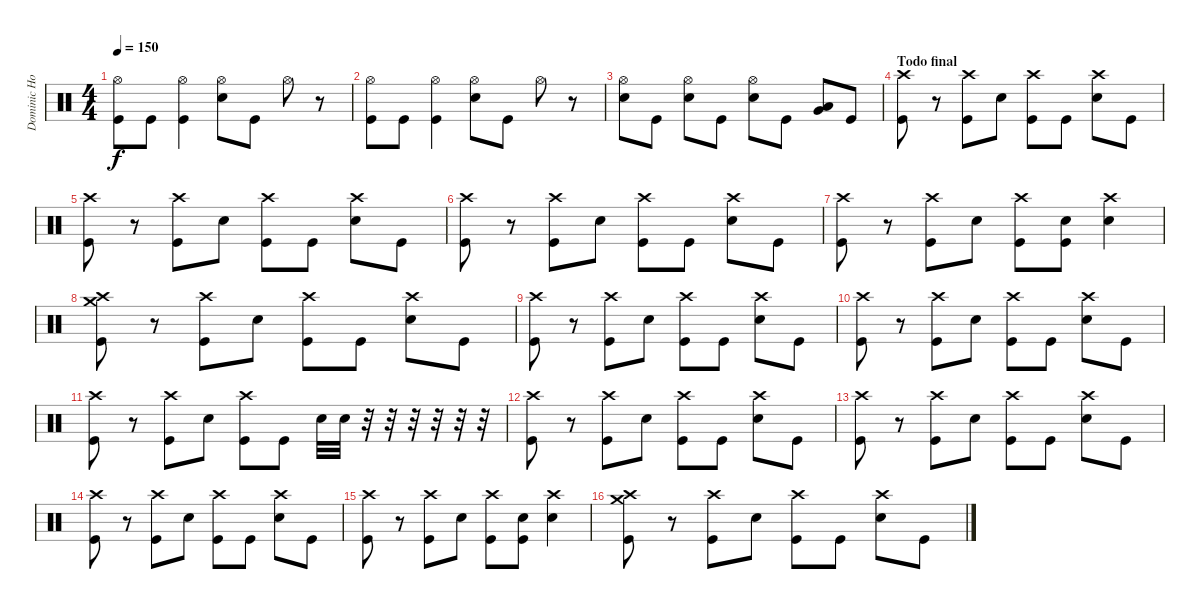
\track ("Dominic Howard" "Dominic Ho") {instrument percussion}
\staff {score}
\articulation defaults
\ts (4 4)
\tempo 150
\clef neutral
\ks c
("Hi-Hat (open)" "Kick (hit)").8{dy f} "Kick (hit)".8 ("Hi-Hat (open)" "Kick (hit)").4 ("Hi-Hat (open)" "Snare (hit) 2").8 "Kick (hit)".8 "Hi-Hat (open)".8 r.8 |
("Hi-Hat (open)" "Kick (hit)").8 "Kick (hit)".8 ("Hi-Hat (open)" "Kick (hit)").4 ("Hi-Hat (open)" "Snare (hit) 2").8 "Kick (hit)".8 "Hi-Hat (open)".8 r.8 |
("Hi-Hat (open)" "Snare (hit) 2").8 "Kick (hit)".8 ("Hi-Hat (open)" "Snare (hit) 2").8 "Kick (hit)".8 ("Hi-Hat (open)" "Snare (hit) 2").8 "Kick (hit)".8 ("Very Low Tom (hit)" "Low Tom (hit)").8 "Kick (hit)".8 |
\section ("" "Todo final")
("Crash high (hit)" "Kick (hit)").8 r.8 ("Crash high (hit)" "Kick (hit)").8 "Snare (hit) 2".8 ("Crash high (hit)" "Kick (hit)").8 "Kick (hit)".8 ("Crash high (hit)" "Snare (hit) 2").8 "Kick (hit)".8 |
("Crash high (hit)" "Kick (hit)").8 r.8 ("Crash high (hit)" "Kick (hit)").8 "Snare (hit) 2".8 ("Crash high (hit)" "Kick (hit)").8 "Kick (hit)".8 ("Crash high (hit)" "Snare (hit) 2").8 "Kick (hit)".8 |
("Crash high (hit)" "Kick (hit)").8 r.8 ("Crash high (hit)" "Kick (hit)").8 "Snare (hit) 2".8 ("Crash high (hit)" "Kick (hit)").8 "Kick (hit)".8 ("Crash high (hit)" "Snare (hit) 2").8 "Kick (hit)".8 |
("Crash high (hit)" "Kick (hit)").8 r.8 ("Crash high (hit)" "Kick (hit)").8 "Snare (hit) 2".8 ("Crash high (hit)" "Kick (hit)").8 ("Snare (hit) 2" "Kick (hit)").8 ("Crash high (hit)" "Snare (hit) 2").4 |
("Crash high (hit)" "Crash medium (hit)" "Kick (hit)").8 r.8 ("Crash high (hit)" "Kick (hit)").8 "Snare (hit) 2".8 ("Crash high (hit)" "Kick (hit)").8 "Kick (hit)".8 ("Crash high (hit)" "Snare (hit) 2").8 "Kick (hit)".8 |
("Crash high (hit)" "Kick (hit)").8 r.8 ("Crash high (hit)" "Kick (hit)").8 "Snare (hit) 2".8 ("Crash high (hit)" "Kick (hit)").8 "Kick (hit)".8 ("Crash high (hit)" "Snare (hit) 2").8 "Kick (hit)".8 |
("Crash high (hit)" "Kick (hit)").8 r.8 ("Crash high (hit)" "Kick (hit)").8 "Snare (hit) 2".8 ("Crash high (hit)" "Kick (hit)").8 "Kick (hit)".8 ("Crash high (hit)" "Snare (hit) 2").8 "Kick (hit)".8 |
("Crash high (hit)" "Kick (hit)").8 r.8 ("Crash high (hit)" "Kick (hit)").8 "Snare (hit) 2".8 ("Crash high (hit)" "Kick (hit)").8 "Kick (hit)".8 "Snare (hit) 2".32 "Snare (hit) 2".32 r.32 r.32 r.32 r.32 r.32 r.32 |
("Crash high (hit)" "Kick (hit)").8 r.8 ("Crash high (hit)" "Kick (hit)").8 "Snare (hit) 2".8 ("Crash high (hit)" "Kick (hit)").8 "Kick (hit)".8 ("Crash high (hit)" "Snare (hit) 2").8 "Kick (hit)".8 |
("Crash high (hit)" "Kick (hit)").8 r.8 ("Crash high (hit)" "Kick (hit)").8 "Snare (hit) 2".8 ("Crash high (hit)" "Kick (hit)").8 "Kick (hit)".8 ("Crash high (hit)" "Snare (hit) 2").8 "Kick (hit)".8 |
("Crash high (hit)" "Kick (hit)").8 r.8 ("Crash high (hit)" "Kick (hit)").8 "Snare (hit) 2".8 ("Crash high (hit)" "Kick (hit)").8 "Kick (hit)".8 ("Crash high (hit)" "Snare (hit) 2").8 "Kick (hit)".8 |
("Crash high (hit)" "Kick (hit)").8 r.8 ("Crash high (hit)" "Kick (hit)").8 "Snare (hit) 2".8 ("Crash high (hit)" "Kick (hit)").8 ("Snare (hit) 2" "Kick (hit)").8 ("Crash high (hit)" "Snare (hit) 2").4 |
("Crash high (hit)" "Crash medium (hit)" "Kick (hit)").8 r.8 ("Crash high (hit)" "Kick (hit)").8 "Snare (hit) 2".8 ("Crash high (hit)" "Kick (hit)").8 "Kick (hit)".8 ("Crash high (hit)" "Snare (hit) 2").8 "Kick (hit)".8
